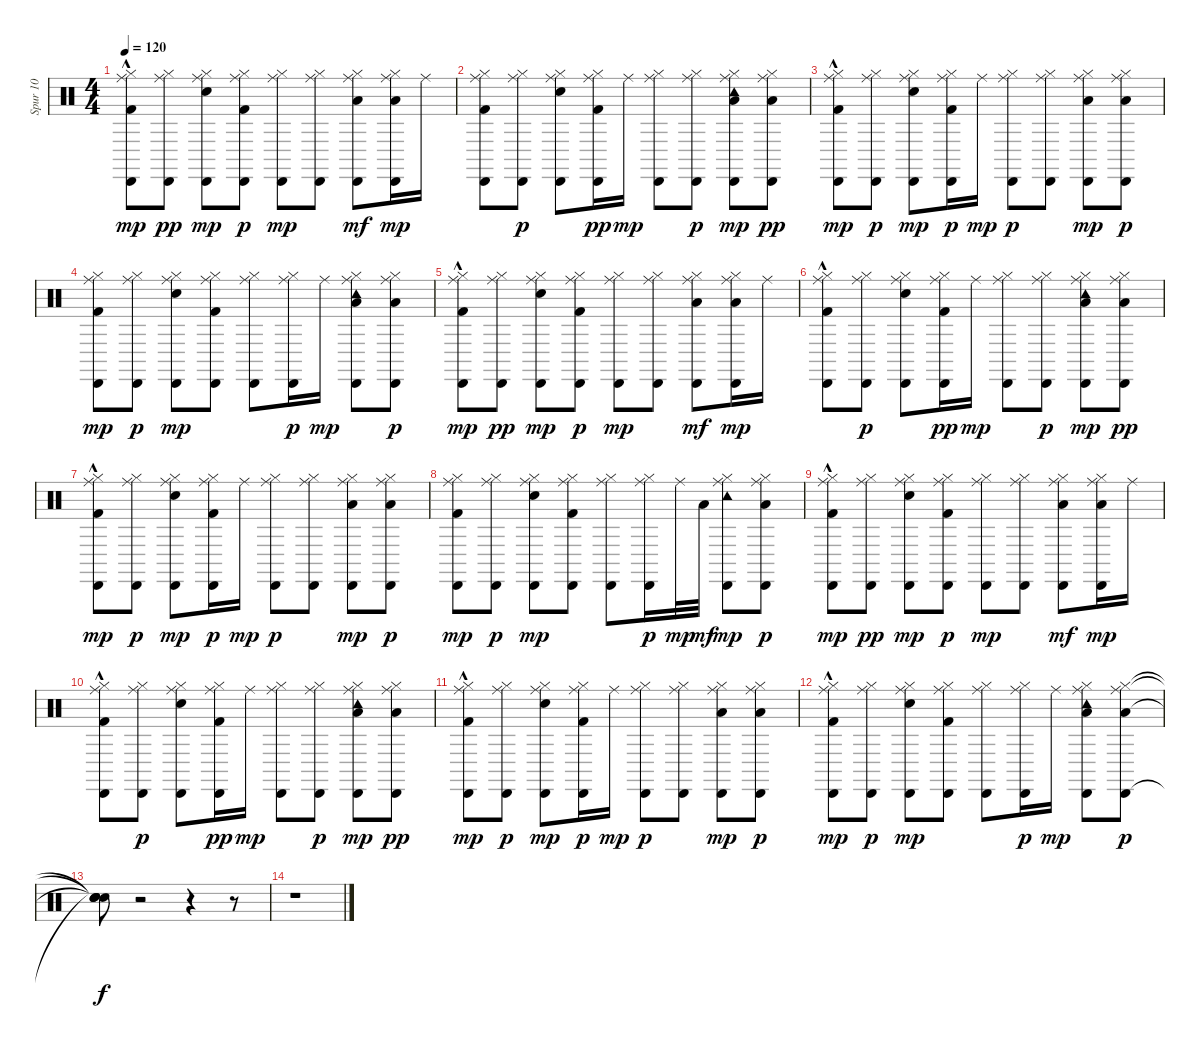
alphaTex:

\track ("Spur 10" "Spur 10") {instrument percussion}
\staff {score}
\articulation defaults
\ts (4 4)
\tempo 120
\clef neutral
\ks c
("Kick (hit) 2"{hac} "Hi-Hat (closed)" "Cabasa (hit)" "Ride (middle)").8{dy mp} ("Hi-Hat (closed)" "Cabasa (hit)" "Ride (middle)").8{dy pp} ("Snare (hit) 2" "Hi-Hat (closed)" "Cabasa (hit)" "Ride (middle)").8{dy mp} ("Kick (hit) 2" "Hi-Hat (closed)" "Cabasa (hit)" "Ride (middle)").8{dy p} ("Hi-Hat (closed)" "Cabasa (hit)" "Ride (middle)").8{dy mp} ("Hi-Hat (closed)" "Cabasa (hit)" "Ride (middle)").8 ("Low Floor Tom (hit)" "Hi-Hat (closed)" "Cabasa (hit)" "Ride (middle)").8{dy mf} ("Low Floor Tom (hit)" "Hi-Hat (closed)" "Cabasa (hit)" "Ride (middle)").16{dy mp} "Ride (middle)".16 |
("Kick (hit) 2" "Hi-Hat (closed)" "Cabasa (hit)" "Ride (middle)").8 ("Hi-Hat (closed)" "Cabasa (hit)" "Ride (middle)").8{dy p} ("Snare (hit) 2" "Hi-Hat (closed)" "Cabasa (hit)" "Ride (middle)").8 ("Kick (hit) 2" "Hi-Hat (closed)" "Cabasa (hit)" "Ride (middle)").16{dy pp} "Ride (middle)".16{dy mp} ("Hi-Hat (closed)" "Cabasa (hit)" "Ride (middle)").8 ("Hi-Hat (closed)" "Cabasa (hit)" "Ride (middle)").8{dy p} ("Low Tom (hit)" "Hi-Hat (closed)" "Cabasa (hit)" "Tambourine (hit)" "Ride (middle)").8{dy mp} ("Low Tom (hit)" "Hi-Hat (closed)" "Cabasa (hit)" "Ride (middle)").8{dy pp} |
("Kick (hit) 2"{hac} "Hi-Hat (closed)" "Cabasa (hit)" "Ride (middle)").8{dy mp} ("Hi-Hat (closed)" "Cabasa (hit)" "Ride (middle)").8{dy p} ("Snare (hit) 2" "Hi-Hat (closed)" "Cabasa (hit)" "Ride (middle)").8{dy mp} ("Kick (hit) 2" "Hi-Hat (closed)" "Cabasa (hit)" "Ride (middle)").16{dy p} "Ride (middle)".16{dy mp} ("Hi-Hat (closed)" "Cabasa (hit)" "Ride (middle)").8{dy p} ("Hi-Hat (closed)" "Cabasa (hit)" "Ride (middle)").8 ("Low Floor Tom (hit)" "Hi-Hat (closed)" "Cabasa (hit)" "Ride (middle)").8{dy mp} ("Low Floor Tom (hit)" "Hi-Hat (closed)" "Cabasa (hit)" "Ride (middle)").8{dy p} |
("Kick (hit) 2" "Hi-Hat (closed)" "Cabasa (hit)" "Ride (middle)").8{dy mp} ("Hi-Hat (closed)" "Cabasa (hit)" "Ride (middle)").8{dy p} ("Snare (hit) 2" "Hi-Hat (closed)" "Cabasa (hit)" "Ride (middle)").8{dy mp} ("Kick (hit) 2" "Hi-Hat (closed)" "Cabasa (hit)" "Ride (middle)").8 ("Hi-Hat (closed)" "Cabasa (hit)" "Ride (middle)").8 ("Hi-Hat (closed)" "Cabasa (hit)" "Ride (middle)").16{dy p} "Ride (middle)".16{dy mp} ("Low Tom (hit)" "Hi-Hat (closed)" "Cabasa (hit)" "Tambourine (hit)" "Ride (middle)").8 ("Low Tom (hit)" "Hi-Hat (closed)" "Cabasa (hit)" "Ride (middle)").8{dy p} |
("Kick (hit) 2"{hac} "Hi-Hat (closed)" "Cabasa (hit)" "Ride (middle)").8{dy mp} ("Hi-Hat (closed)" "Cabasa (hit)" "Ride (middle)").8{dy pp} ("Snare (hit) 2" "Hi-Hat (closed)" "Cabasa (hit)" "Ride (middle)").8{dy mp} ("Kick (hit) 2" "Hi-Hat (closed)" "Cabasa (hit)" "Ride (middle)").8{dy p} ("Hi-Hat (closed)" "Cabasa (hit)" "Ride (middle)").8{dy mp} ("Hi-Hat (closed)" "Cabasa (hit)" "Ride (middle)").8 ("Low Floor Tom (hit)" "Hi-Hat (closed)" "Cabasa (hit)" "Ride (middle)").8{dy mf} ("Low Floor Tom (hit)" "Hi-Hat (closed)" "Cabasa (hit)" "Ride (middle)").16{dy mp} "Ride (middle)".16 |
("Kick (hit) 2"{hac} "Hi-Hat (closed)" "Cabasa (hit)" "Ride (middle)").8 ("Hi-Hat (closed)" "Cabasa (hit)" "Ride (middle)").8{dy p} ("Snare (hit) 2" "Hi-Hat (closed)" "Cabasa (hit)" "Ride (middle)").8 ("Kick (hit) 2" "Hi-Hat (closed)" "Cabasa (hit)" "Ride (middle)").16{dy pp} "Ride (middle)".16{dy mp} ("Hi-Hat (closed)" "Cabasa (hit)" "Ride (middle)").8 ("Hi-Hat (closed)" "Cabasa (hit)" "Ride (middle)").8{dy p} ("Low Tom (hit)" "Hi-Hat (closed)" "Cabasa (hit)" "Tambourine (hit)" "Ride (middle)").8{dy mp} ("Low Tom (hit)" "Hi-Hat (closed)" "Cabasa (hit)" "Ride (middle)").8{dy pp} |
("Kick (hit) 2"{hac} "Hi-Hat (closed)" "Cabasa (hit)" "Ride (middle)").8{dy mp} ("Hi-Hat (closed)" "Cabasa (hit)" "Ride (middle)").8{dy p} ("Snare (hit) 2" "Hi-Hat (closed)" "Cabasa (hit)" "Ride (middle)").8{dy mp} ("Kick (hit) 2" "Hi-Hat (closed)" "Cabasa (hit)" "Ride (middle)").16{dy p} "Ride (middle)".16{dy mp} ("Hi-Hat (closed)" "Cabasa (hit)" "Ride (middle)").8{dy p} ("Hi-Hat (closed)" "Cabasa (hit)" "Ride (middle)").8 ("Low Floor Tom (hit)" "Hi-Hat (closed)" "Cabasa (hit)" "Ride (middle)").8{dy mp} ("Low Floor Tom (hit)" "Hi-Hat (closed)" "Cabasa (hit)" "Ride (middle)").8{dy p} |
("Kick (hit) 2" "Hi-Hat (closed)" "Cabasa (hit)" "Ride (middle)").8{dy mp} ("Hi-Hat (closed)" "Cabasa (hit)" "Ride (middle)").8{dy p} ("Snare (hit) 2" "Hi-Hat (closed)" "Cabasa (hit)" "Ride (middle)").8{dy mp} ("Kick (hit) 2" "Hi-Hat (closed)" "Cabasa (hit)" "Ride (middle)").8 ("Hi-Hat (closed)" "Cabasa (hit)" "Ride (middle)").8 ("Hi-Hat (closed)" "Cabasa (hit)" "Ride (middle)").16{dy p} "Ride (middle)".32{dy mp} "Low Tom (hit)".32{dy mf} ("Hi-Hat (closed)" "Cabasa (hit)" "Tambourine (hit)" "Ride (middle)").8{dy mp} ("Low Tom (hit)" "Hi-Hat (closed)" "Cabasa (hit)" "Ride (middle)").8{dy p} |
("Kick (hit) 2"{hac} "Hi-Hat (closed)" "Cabasa (hit)" "Ride (middle)").8{dy mp} ("Hi-Hat (closed)" "Cabasa (hit)" "Ride (middle)").8{dy pp} ("Snare (hit) 2" "Hi-Hat (closed)" "Cabasa (hit)" "Ride (middle)").8{dy mp} ("Kick (hit) 2" "Hi-Hat (closed)" "Cabasa (hit)" "Ride (middle)").8{dy p} ("Hi-Hat (closed)" "Cabasa (hit)" "Ride (middle)").8{dy mp} ("Hi-Hat (closed)" "Cabasa (hit)" "Ride (middle)").8 ("Low Floor Tom (hit)" "Hi-Hat (closed)" "Cabasa (hit)" "Ride (middle)").8{dy mf} ("Low Floor Tom (hit)" "Hi-Hat (closed)" "Cabasa (hit)" "Ride (middle)").16{dy mp} "Ride (middle)".16 |
("Kick (hit) 2"{hac} "Hi-Hat (closed)" "Cabasa (hit)" "Ride (middle)").8 ("Hi-Hat (closed)" "Cabasa (hit)" "Ride (middle)").8{dy p} ("Snare (hit) 2" "Hi-Hat (closed)" "Cabasa (hit)" "Ride (middle)").8 ("Kick (hit) 2" "Hi-Hat (closed)" "Cabasa (hit)" "Ride (middle)").16{dy pp} "Ride (middle)".16{dy mp} ("Hi-Hat (closed)" "Cabasa (hit)" "Ride (middle)").8 ("Hi-Hat (closed)" "Cabasa (hit)" "Ride (middle)").8{dy p} ("Low Tom (hit)" "Hi-Hat (closed)" "Cabasa (hit)" "Tambourine (hit)" "Ride (middle)").8{dy mp} ("Low Tom (hit)" "Hi-Hat (closed)" "Cabasa (hit)" "Ride (middle)").8{dy pp} |
("Kick (hit) 2"{hac} "Hi-Hat (closed)" "Cabasa (hit)" "Ride (middle)").8{dy mp} ("Hi-Hat (closed)" "Cabasa (hit)" "Ride (middle)").8{dy p} ("Snare (hit) 2" "Hi-Hat (closed)" "Cabasa (hit)" "Ride (middle)").8{dy mp} ("Kick (hit) 2" "Hi-Hat (closed)" "Cabasa (hit)" "Ride (middle)").16{dy p} "Ride (middle)".16{dy mp} ("Hi-Hat (closed)" "Cabasa (hit)" "Ride (middle)").8{dy p} ("Hi-Hat (closed)" "Cabasa (hit)" "Ride (middle)").8 ("Low Floor Tom (hit)" "Hi-Hat (closed)" "Cabasa (hit)" "Ride (middle)").8{dy mp} ("Low Floor Tom (hit)" "Hi-Hat (closed)" "Cabasa (hit)" "Ride (middle)").8{dy p} |
("Kick (hit) 2"{hac} "Hi-Hat (closed)" "Cabasa (hit)" "Ride (middle)").8{dy mp} ("Hi-Hat (closed)" "Cabasa (hit)" "Ride (middle)").8{dy p} ("Snare (hit) 2" "Hi-Hat (closed)" "Cabasa (hit)" "Ride (middle)").8{dy mp} ("Kick (hit) 2" "Hi-Hat (closed)" "Cabasa (hit)" "Ride (middle)").8 ("Hi-Hat (closed)" "Cabasa (hit)" "Ride (middle)").8 ("Hi-Hat (closed)" "Cabasa (hit)" "Ride (middle)").16{dy p} "Ride (middle)".16{dy mp} ("Low Tom (hit)" "Hi-Hat (closed)" "Cabasa (hit)" "Tambourine (hit)" "Ride (middle)").8 ("Low Tom (hit)" "Hi-Hat (closed)" "Cabasa (hit)" "Ride (middle)").8{dy p} |
("Snare (hit)"{t} "Snare (hit)"{t} "Snare (hit)"{t} "Snare (hit)"{t}).8{dy f} r.2 r.4 r.8 |
r.1
